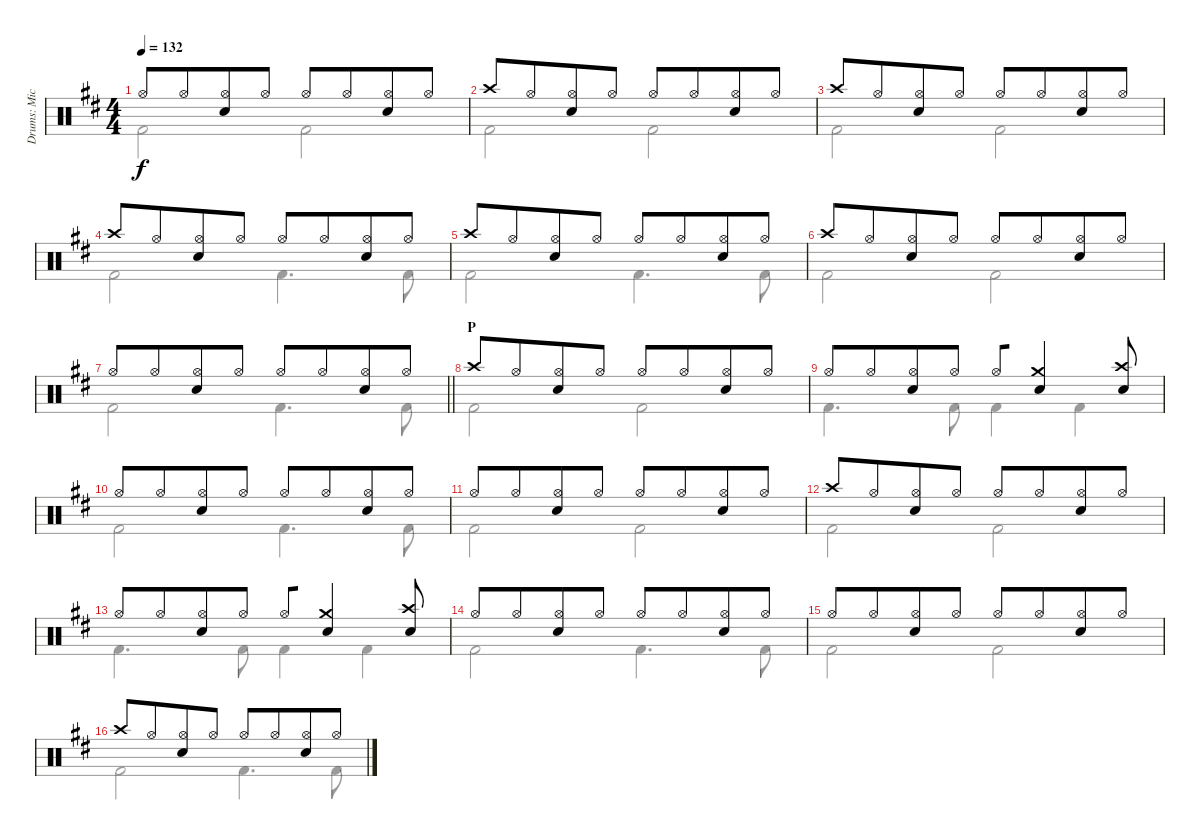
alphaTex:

\track ("Drums: Mick" "Drums: Mic") {instrument percussion}
\staff {score}
\articulation defaults
\voice
\ts (4 4)
\tempo 132
\clef neutral
\ks d "Hi-Hat (open)".8{dy f} "Hi-Hat (open)".8{beam merge}
("Hi-Hat (open)" "Snare (hit) 2").8 "Hi-Hat (open)".8 "Hi-Hat (open)".8 "Hi-Hat (open)".8{beam merge} ("Hi-Hat (open)" "Snare (hit) 2").8 "Hi-Hat (open)".8 |
"Crash high (hit)".8 "Hi-Hat (open)".8{beam merge} ("Hi-Hat (open)" "Snare (hit) 2").8 "Hi-Hat (open)".8 "Hi-Hat (open)".8 "Hi-Hat (open)".8{beam merge} ("Hi-Hat (open)" "Snare (hit) 2").8 "Hi-Hat (open)".8 |
"Crash high (hit)".8 "Hi-Hat (open)".8{beam merge} ("Hi-Hat (open)" "Snare (hit) 2").8 "Hi-Hat (open)".8 "Hi-Hat (open)".8 "Hi-Hat (open)".8{beam merge} ("Hi-Hat (open)" "Snare (hit) 2").8 "Hi-Hat (open)".8 |
"Crash high (hit)".8 "Hi-Hat (open)".8{beam merge} ("Hi-Hat (open)" "Snare (hit) 2").8 "Hi-Hat (open)".8 "Hi-Hat (open)".8 "Hi-Hat (open)".8{beam merge} ("Hi-Hat (open)" "Snare (hit) 2").8 "Hi-Hat (open)".8 |
"Crash high (hit)".8 "Hi-Hat (open)".8{beam merge} ("Hi-Hat (open)" "Snare (hit) 2").8 "Hi-Hat (open)".8 "Hi-Hat (open)".8 "Hi-Hat (open)".8{beam merge} ("Hi-Hat (open)" "Snare (hit) 2").8 "Hi-Hat (open)".8 |
"Crash high (hit)".8 "Hi-Hat (open)".8{beam merge} ("Hi-Hat (open)" "Snare (hit) 2").8 "Hi-Hat (open)".8 "Hi-Hat (open)".8 "Hi-Hat (open)".8{beam merge} ("Hi-Hat (open)" "Snare (hit) 2").8 "Hi-Hat (open)".8 |
\barLineRight lightlight "Hi-Hat (open)".8 "Hi-Hat (open)".8{beam merge}
("Hi-Hat (open)" "Snare (hit) 2").8 "Hi-Hat (open)".8 "Hi-Hat (open)".8 "Hi-Hat (open)".8{beam merge} ("Hi-Hat (open)" "Snare (hit) 2").8 "Hi-Hat (open)".8 |
\section ("" "P")
"Crash high (hit)".8 "Hi-Hat (open)".8{beam merge} ("Hi-Hat (open)" "Snare (hit) 2").8 "Hi-Hat (open)".8 "Hi-Hat (open)".8 "Hi-Hat (open)".8{beam merge} ("Hi-Hat (open)" "Snare (hit) 2").8 "Hi-Hat (open)".8 |
"Hi-Hat (open)".8 "Hi-Hat (open)".8{beam merge} ("Hi-Hat (open)" "Snare (hit) 2").8 "Hi-Hat (open)".8 "Hi-Hat (open)".8{beam merge} ("Crash medium (hit)" "Snare (hit) 2").4 ("Crash high (hit)" "Snare (hit) 2").8 |
"Hi-Hat (open)".8 "Hi-Hat (open)".8{beam merge} ("Hi-Hat (open)" "Snare (hit) 2").8 "Hi-Hat (open)".8 "Hi-Hat (open)".8 "Hi-Hat (open)".8{beam merge} ("Hi-Hat (open)" "Snare (hit) 2").8 "Hi-Hat (open)".8 |
"Hi-Hat (open)".8 "Hi-Hat (open)".8{beam merge} ("Hi-Hat (open)" "Snare (hit) 2").8 "Hi-Hat (open)".8 "Hi-Hat (open)".8 "Hi-Hat (open)".8{beam merge} ("Hi-Hat (open)" "Snare (hit) 2").8 "Hi-Hat (open)".8 |
"Crash high (hit)".8 "Hi-Hat (open)".8{beam merge} ("Hi-Hat (open)" "Snare (hit) 2").8 "Hi-Hat (open)".8 "Hi-Hat (open)".8 "Hi-Hat (open)".8{beam merge} ("Hi-Hat (open)" "Snare (hit) 2").8 "Hi-Hat (open)".8 |
"Hi-Hat (open)".8 "Hi-Hat (open)".8{beam merge} ("Hi-Hat (open)" "Snare (hit) 2").8 "Hi-Hat (open)".8 "Hi-Hat (open)".8{beam merge} ("Crash medium (hit)" "Snare (hit) 2").4 ("Crash high (hit)" "Snare (hit) 2").8 |
"Hi-Hat (open)".8 "Hi-Hat (open)".8{beam merge} ("Hi-Hat (open)" "Snare (hit) 2").8 "Hi-Hat (open)".8 "Hi-Hat (open)".8 "Hi-Hat (open)".8{beam merge} ("Hi-Hat (open)" "Snare (hit) 2").8 "Hi-Hat (open)".8 |
"Hi-Hat (open)".8 "Hi-Hat (open)".8{beam merge} ("Hi-Hat (open)" "Snare (hit) 2").8 "Hi-Hat (open)".8 "Hi-Hat (open)".8 "Hi-Hat (open)".8{beam merge} ("Hi-Hat (open)" "Snare (hit) 2").8 "Hi-Hat (open)".8 |
"Crash high (hit)".8 "Hi-Hat (open)".8{beam merge} ("Hi-Hat (open)" "Snare (hit) 2").8 "Hi-Hat (open)".8 "Hi-Hat (open)".8 "Hi-Hat (open)".8{beam merge} ("Hi-Hat (open)" "Snare (hit) 2").8 "Hi-Hat (open)".8
\voice
\clef neutral
\ottava regular
\simile none
\ks d "Kick (hit) 2".2{dy f} "Kick (hit) 2".2
|
"Kick (hit) 2".2 "Kick (hit) 2".2 |
"Kick (hit) 2".2 "Kick (hit) 2".2 |
"Kick (hit) 2".2 "Kick (hit) 2".4{d} "Kick (hit) 2".8 |
"Kick (hit) 2".2 "Kick (hit) 2".4{d} "Kick (hit) 2".8 |
"Kick (hit) 2".2 "Kick (hit) 2".2 |
\barLineRight lightlight "Kick (hit) 2".2 "Kick (hit) 2".4{d} "Kick (hit) 2".8
|
"Kick (hit) 2".2 "Kick (hit) 2".2 |
"Kick (hit) 2".4{d} "Kick (hit) 2".8 "Kick (hit) 2".4 "Kick (hit) 2".4 |
"Kick (hit) 2".2 "Kick (hit) 2".4{d} "Kick (hit) 2".8 |
"Kick (hit) 2".2 "Kick (hit) 2".2 |
"Kick (hit) 2".2 "Kick (hit) 2".2 |
"Kick (hit) 2".4{d} "Kick (hit) 2".8 "Kick (hit) 2".4 "Kick (hit) 2".4 |
"Kick (hit) 2".2 "Kick (hit) 2".4{d} "Kick (hit) 2".8 |
"Kick (hit) 2".2 "Kick (hit) 2".2 |
"Kick (hit) 2".2 "Kick (hit) 2".4{d} "Kick (hit) 2".8
